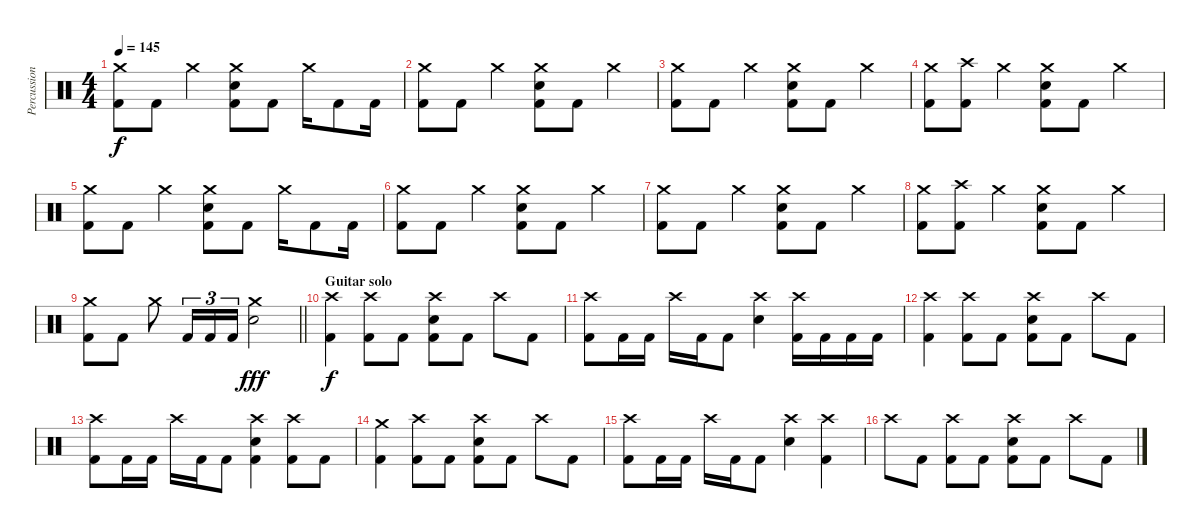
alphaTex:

\track ("Percussions" "Percussion") {instrument percussion}
\staff {score}
\articulation defaults
\ts (4 4)
\tempo 145
\clef neutral
\ks c
("Crash medium (hit)" "Kick (hit) 2").8{dy f} "Kick (hit) 2".8 "Crash medium (hit)".4 ("Crash medium (hit)" "Electric Snare (hit)" "Kick (hit) 2").8 "Kick (hit) 2".8 "Crash medium (hit)".16 "Kick (hit) 2".8 "Kick (hit) 2".16 |
("Crash medium (hit)" "Kick (hit) 2").8 "Kick (hit) 2".8 "Crash medium (hit)".4 ("Crash medium (hit)" "Electric Snare (hit)" "Kick (hit) 2").8 "Kick (hit) 2".8 "Crash medium (hit)".4 |
("Crash medium (hit)" "Kick (hit) 2").8 "Kick (hit) 2".8 "Crash medium (hit)".4 ("Crash medium (hit)" "Electric Snare (hit)" "Kick (hit) 2").8 "Kick (hit) 2".8 "Crash medium (hit)".4 |
("Crash medium (hit)" "Kick (hit) 2").8 ("Crash high (hit)" "Kick (hit) 2").8 "Crash medium (hit)".4 ("Crash medium (hit)" "Electric Snare (hit)" "Kick (hit) 2").8 "Kick (hit) 2".8 "Crash medium (hit)".4 |
("Crash medium (hit)" "Kick (hit) 2").8 "Kick (hit) 2".8 "Crash medium (hit)".4 ("Crash medium (hit)" "Electric Snare (hit)" "Kick (hit) 2").8 "Kick (hit) 2".8 "Crash medium (hit)".16 "Kick (hit) 2".8 "Kick (hit) 2".16 |
("Crash medium (hit)" "Kick (hit) 2").8 "Kick (hit) 2".8 "Crash medium (hit)".4 ("Crash medium (hit)" "Electric Snare (hit)" "Kick (hit) 2").8 "Kick (hit) 2".8 "Crash medium (hit)".4 |
("Crash medium (hit)" "Kick (hit) 2").8 "Kick (hit) 2".8 "Crash medium (hit)".4 ("Crash medium (hit)" "Electric Snare (hit)" "Kick (hit) 2").8 "Kick (hit) 2".8 "Crash medium (hit)".4 |
("Crash medium (hit)" "Kick (hit) 2").8 ("Crash high (hit)" "Kick (hit) 2").8 "Crash medium (hit)".4 ("Crash medium (hit)" "Electric Snare (hit)" "Kick (hit) 2").8 "Kick (hit) 2".8 "Crash medium (hit)".4 |
\barLineRight lightlight
("Crash medium (hit)" "Kick (hit) 2").8 "Kick (hit) 2".8 "Crash medium (hit)".8 "Kick (hit) 2".16{tu (3 2)} "Kick (hit) 2".16{tu (3 2)} "Kick (hit) 2".16{tu (3 2)} ("Crash medium (hit)" "Electric Snare (hit)").2{dy fff} |
\section ("" "Guitar solo")
("Crash high (hit)" "Kick (hit) 2").4{dy f} ("Crash high (hit)" "Kick (hit) 2").8 "Kick (hit) 2".8 ("Crash high (hit)" "Electric Snare (hit)" "Kick (hit) 2").8 "Kick (hit) 2".8 "Crash high (hit)".8 "Kick (hit) 2".8 |
("Crash high (hit)" "Kick (hit) 2").8 "Kick (hit) 2".16 "Kick (hit) 2".16 "Crash high (hit)".16 "Kick (hit) 2".16 "Kick (hit) 2".8 ("Crash high (hit)" "Electric Snare (hit)").4 ("Crash high (hit)" "Kick (hit) 2").16 "Kick (hit) 2".16 "Kick (hit) 2".16 "Kick (hit) 2".16 |
("Crash high (hit)" "Kick (hit) 2").4 ("Crash high (hit)" "Kick (hit) 2").8 "Kick (hit) 2".8 ("Crash high (hit)" "Electric Snare (hit)" "Kick (hit) 2").8 "Kick (hit) 2".8 "Crash high (hit)".8 "Kick (hit) 2".8 |
("Crash high (hit)" "Kick (hit) 2").8 "Kick (hit) 2".16 "Kick (hit) 2".16 "Crash high (hit)".16 "Kick (hit) 2".16 "Kick (hit) 2".8 ("Crash high (hit)" "Electric Snare (hit)" "Kick (hit) 2").4 ("Crash high (hit)" "Kick (hit) 2").8 "Kick (hit) 2".8 |
("Crash medium (hit)" "Kick (hit) 2").4 ("Crash high (hit)" "Kick (hit) 2").8 "Kick (hit) 2".8 ("Crash high (hit)" "Electric Snare (hit)" "Kick (hit) 2").8 "Kick (hit) 2".8 "Crash high (hit)".8 "Kick (hit) 2".8 |
("Crash high (hit)" "Kick (hit) 2").8 "Kick (hit) 2".16 "Kick (hit) 2".16 "Crash high (hit)".16 "Kick (hit) 2".16 "Kick (hit) 2".8 ("Crash high (hit)" "Electric Snare (hit)").4 ("Crash high (hit)" "Kick (hit) 2").4 |
"Crash high (hit)".8 "Kick (hit) 2".8 ("Crash high (hit)" "Kick (hit) 2").8 "Kick (hit) 2".8 ("Crash high (hit)" "Electric Snare (hit)" "Kick (hit) 2").8 "Kick (hit) 2".8 "Crash high (hit)".8 "Kick (hit) 2".8
